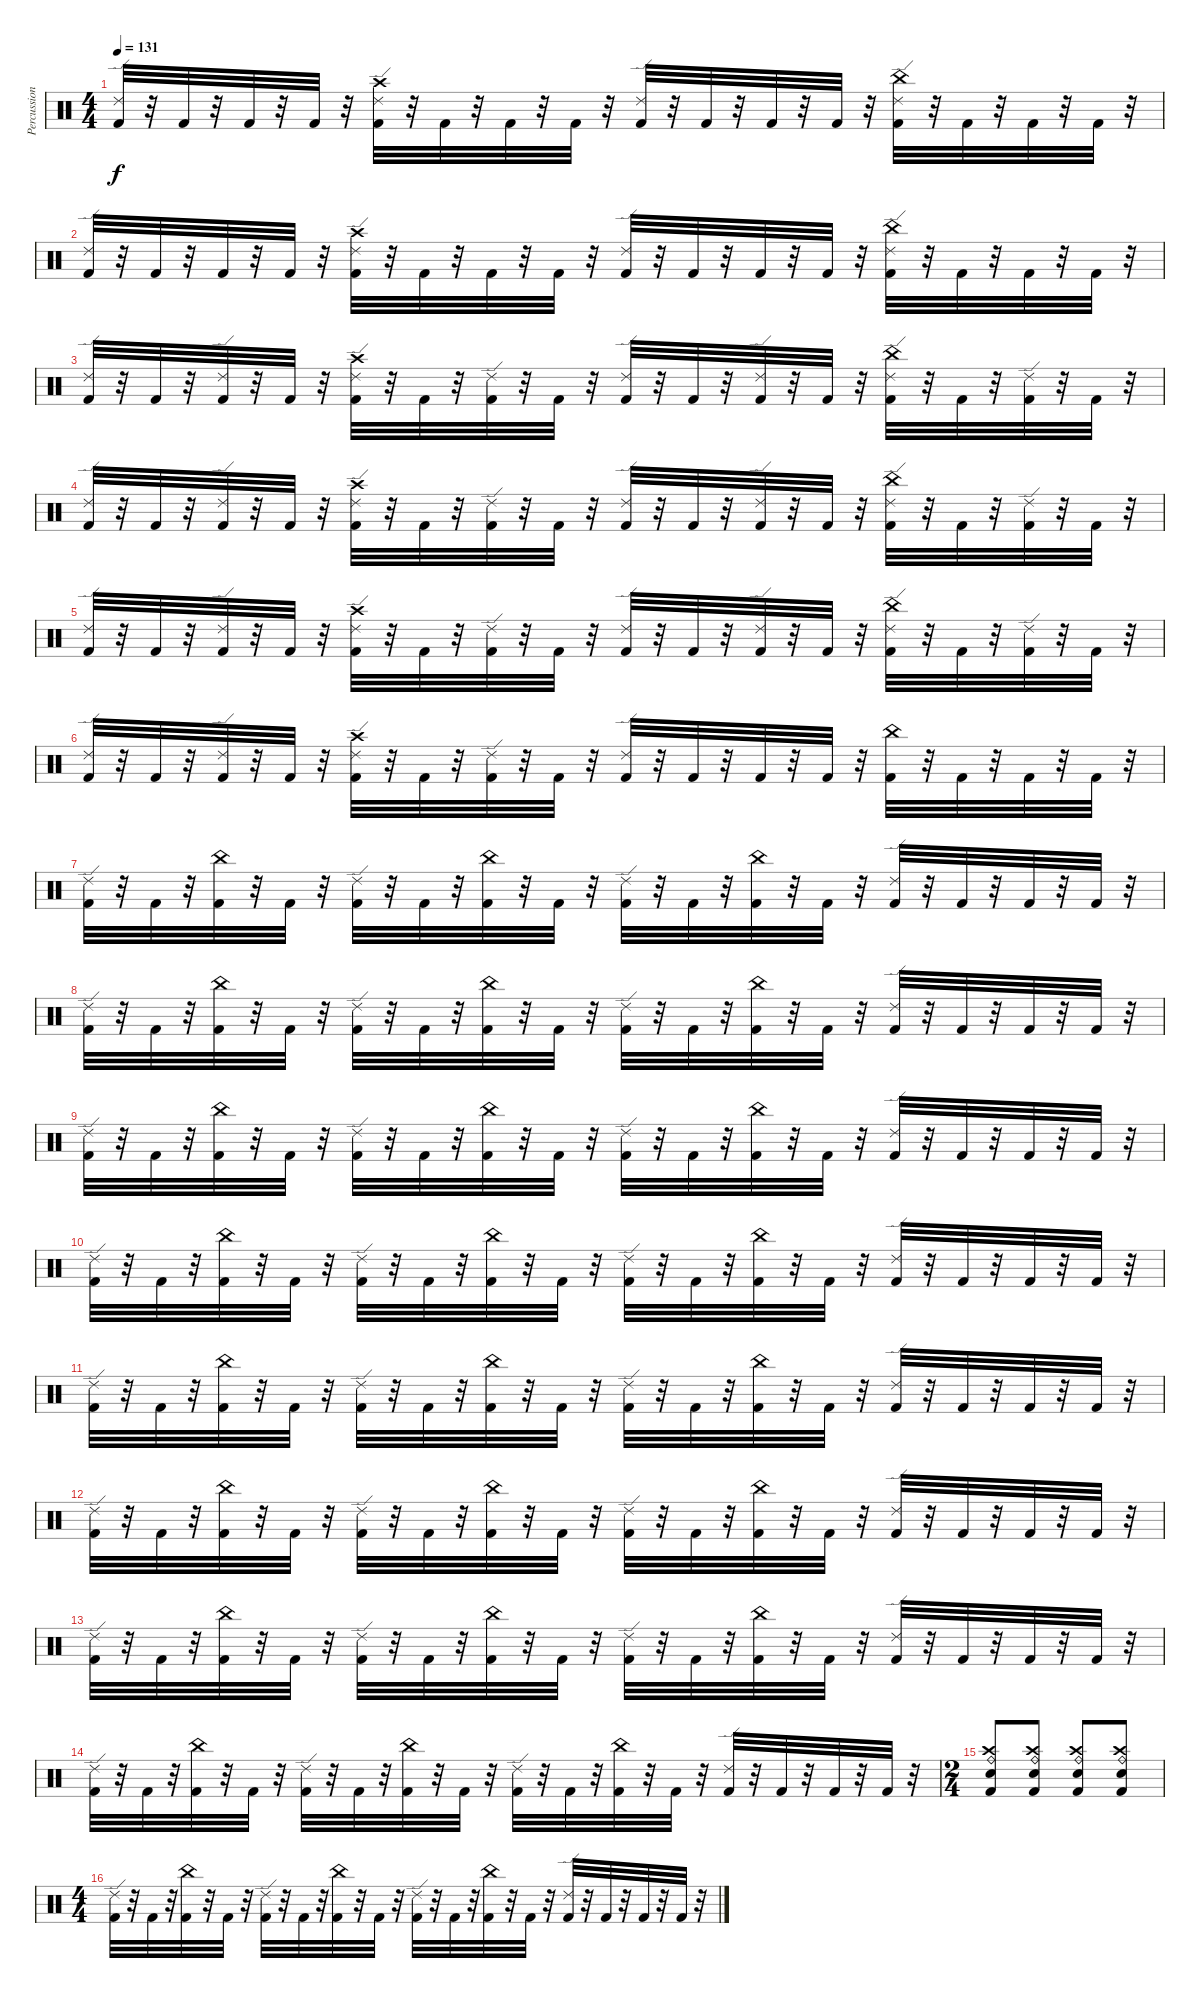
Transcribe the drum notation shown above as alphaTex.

\track ("Percussion" "Percussion") {instrument percussion}
\staff {score}
\articulation defaults
\ts (4 4)
\tempo 131
\clef neutral
\ks c
("Ride (edge) 2" "Kick (hit) 2").32{dy f} r.32 "Kick (hit) 2".32 r.32 "Kick (hit) 2".32 r.32 "Kick (hit) 2".32 r.32 ("Crash high (hit)" "Ride (edge) 2" "Kick (hit) 2").32 r.32 "Kick (hit) 2".32 r.32 "Kick (hit) 2".32 r.32 "Kick (hit) 2".32 r.32 ("Ride (edge) 2" "Kick (hit) 2").32 r.32 "Kick (hit) 2".32 r.32 "Kick (hit) 2".32 r.32 "Kick (hit) 2".32 r.32 ("China (hit)" "Ride (edge) 2" "Kick (hit) 2").32 r.32 "Kick (hit) 2".32 r.32 "Kick (hit) 2".32 r.32 "Kick (hit) 2".32 r.32 |
("Ride (edge) 2" "Kick (hit) 2").32 r.32 "Kick (hit) 2".32 r.32 "Kick (hit) 2".32 r.32 "Kick (hit) 2".32 r.32 ("Crash high (hit)" "Ride (edge) 2" "Kick (hit) 2").32 r.32 "Kick (hit) 2".32 r.32 "Kick (hit) 2".32 r.32 "Kick (hit) 2".32 r.32 ("Ride (edge) 2" "Kick (hit) 2").32 r.32 "Kick (hit) 2".32 r.32 "Kick (hit) 2".32 r.32 "Kick (hit) 2".32 r.32 ("China (hit)" "Ride (edge) 2" "Kick (hit) 2").32 r.32 "Kick (hit) 2".32 r.32 "Kick (hit) 2".32 r.32 "Kick (hit) 2".32 r.32 |
("Ride (edge) 2" "Kick (hit) 2").32 r.32 "Kick (hit) 2".32 r.32 ("Ride (edge) 2" "Kick (hit) 2").32 r.32 "Kick (hit) 2".32 r.32 ("Crash high (hit)" "Ride (edge) 2" "Kick (hit) 2").32 r.32 "Kick (hit) 2".32 r.32 ("Ride (edge) 2" "Kick (hit) 2").32 r.32 "Kick (hit) 2".32 r.32 ("Ride (edge) 2" "Kick (hit) 2").32 r.32 "Kick (hit) 2".32 r.32 ("Ride (edge) 2" "Kick (hit) 2").32 r.32 "Kick (hit) 2".32 r.32 ("China (hit)" "Ride (edge) 2" "Kick (hit) 2").32 r.32 "Kick (hit) 2".32 r.32 ("Ride (edge) 2" "Kick (hit) 2").32 r.32 "Kick (hit) 2".32 r.32 |
("Ride (edge) 2" "Kick (hit) 2").32 r.32 "Kick (hit) 2".32 r.32 ("Ride (edge) 2" "Kick (hit) 2").32 r.32 "Kick (hit) 2".32 r.32 ("Crash high (hit)" "Ride (edge) 2" "Kick (hit) 2").32 r.32 "Kick (hit) 2".32 r.32 ("Ride (edge) 2" "Kick (hit) 2").32 r.32 "Kick (hit) 2".32 r.32 ("Ride (edge) 2" "Kick (hit) 2").32 r.32 "Kick (hit) 2".32 r.32 ("Ride (edge) 2" "Kick (hit) 2").32 r.32 "Kick (hit) 2".32 r.32 ("China (hit)" "Ride (edge) 2" "Kick (hit) 2").32 r.32 "Kick (hit) 2".32 r.32 ("Ride (edge) 2" "Kick (hit) 2").32 r.32 "Kick (hit) 2".32 r.32 |
("Ride (edge) 2" "Kick (hit) 2").32 r.32 "Kick (hit) 2".32 r.32 ("Ride (edge) 2" "Kick (hit) 2").32 r.32 "Kick (hit) 2".32 r.32 ("Crash high (hit)" "Ride (edge) 2" "Kick (hit) 2").32 r.32 "Kick (hit) 2".32 r.32 ("Ride (edge) 2" "Kick (hit) 2").32 r.32 "Kick (hit) 2".32 r.32 ("Ride (edge) 2" "Kick (hit) 2").32 r.32 "Kick (hit) 2".32 r.32 ("Ride (edge) 2" "Kick (hit) 2").32 r.32 "Kick (hit) 2".32 r.32 ("China (hit)" "Ride (edge) 2" "Kick (hit) 2").32 r.32 "Kick (hit) 2".32 r.32 ("Ride (edge) 2" "Kick (hit) 2").32 r.32 "Kick (hit) 2".32 r.32 |
("Ride (edge) 2" "Kick (hit) 2").32 r.32 "Kick (hit) 2".32 r.32 ("Ride (edge) 2" "Kick (hit) 2").32 r.32 "Kick (hit) 2".32 r.32 ("Crash high (hit)" "Ride (edge) 2" "Kick (hit) 2").32 r.32 "Kick (hit) 2".32 r.32 ("Ride (edge) 2" "Kick (hit) 2").32 r.32 "Kick (hit) 2".32 r.32 ("Ride (edge) 2" "Kick (hit) 2").32 r.32 "Kick (hit) 2".32 r.32 "Kick (hit) 2".32 r.32 "Kick (hit) 2".32 r.32 ("China (hit)" "Kick (hit) 2").32 r.32 "Kick (hit) 2".32 r.32 "Kick (hit) 2".32 r.32 "Kick (hit) 2".32 r.32 |
("Ride (edge) 2" "Kick (hit) 2").32 r.32 "Kick (hit) 2".32 r.32 ("China (hit)" "Kick (hit) 2").32 r.32 "Kick (hit) 2".32 r.32 ("Ride (edge) 2" "Kick (hit) 2").32 r.32 "Kick (hit) 2".32 r.32 ("China (hit)" "Kick (hit) 2").32 r.32 "Kick (hit) 2".32 r.32 ("Ride (edge) 2" "Kick (hit) 2").32 r.32 "Kick (hit) 2".32 r.32 ("China (hit)" "Kick (hit) 2").32 r.32 "Kick (hit) 2".32 r.32 ("Ride (edge) 2" "Kick (hit) 2").32 r.32 "Kick (hit) 2".32 r.32 "Kick (hit) 2".32 r.32 "Kick (hit) 2".32 r.32 |
("Ride (edge) 2" "Kick (hit) 2").32 r.32 "Kick (hit) 2".32 r.32 ("China (hit)" "Kick (hit) 2").32 r.32 "Kick (hit) 2".32 r.32 ("Ride (edge) 2" "Kick (hit) 2").32 r.32 "Kick (hit) 2".32 r.32 ("China (hit)" "Kick (hit) 2").32 r.32 "Kick (hit) 2".32 r.32 ("Ride (edge) 2" "Kick (hit) 2").32 r.32 "Kick (hit) 2".32 r.32 ("China (hit)" "Kick (hit) 2").32 r.32 "Kick (hit) 2".32 r.32 ("Ride (edge) 2" "Kick (hit) 2").32 r.32 "Kick (hit) 2".32 r.32 "Kick (hit) 2".32 r.32 "Kick (hit) 2".32 r.32 |
("Ride (edge) 2" "Kick (hit) 2").32 r.32 "Kick (hit) 2".32 r.32 ("China (hit)" "Kick (hit) 2").32 r.32 "Kick (hit) 2".32 r.32 ("Ride (edge) 2" "Kick (hit) 2").32 r.32 "Kick (hit) 2".32 r.32 ("China (hit)" "Kick (hit) 2").32 r.32 "Kick (hit) 2".32 r.32 ("Ride (edge) 2" "Kick (hit) 2").32 r.32 "Kick (hit) 2".32 r.32 ("China (hit)" "Kick (hit) 2").32 r.32 "Kick (hit) 2".32 r.32 ("Ride (edge) 2" "Kick (hit) 2").32 r.32 "Kick (hit) 2".32 r.32 "Kick (hit) 2".32 r.32 "Kick (hit) 2".32 r.32 |
("Ride (edge) 2" "Kick (hit) 2").32 r.32 "Kick (hit) 2".32 r.32 ("China (hit)" "Kick (hit) 2").32 r.32 "Kick (hit) 2".32 r.32 ("Ride (edge) 2" "Kick (hit) 2").32 r.32 "Kick (hit) 2".32 r.32 ("China (hit)" "Kick (hit) 2").32 r.32 "Kick (hit) 2".32 r.32 ("Ride (edge) 2" "Kick (hit) 2").32 r.32 "Kick (hit) 2".32 r.32 ("China (hit)" "Kick (hit) 2").32 r.32 "Kick (hit) 2".32 r.32 ("Ride (edge) 2" "Kick (hit) 2").32 r.32 "Kick (hit) 2".32 r.32 "Kick (hit) 2".32 r.32 "Kick (hit) 2".32 r.32 |
("Ride (edge) 2" "Kick (hit) 2").32 r.32 "Kick (hit) 2".32 r.32 ("China (hit)" "Kick (hit) 2").32 r.32 "Kick (hit) 2".32 r.32 ("Ride (edge) 2" "Kick (hit) 2").32 r.32 "Kick (hit) 2".32 r.32 ("China (hit)" "Kick (hit) 2").32 r.32 "Kick (hit) 2".32 r.32 ("Ride (edge) 2" "Kick (hit) 2").32 r.32 "Kick (hit) 2".32 r.32 ("China (hit)" "Kick (hit) 2").32 r.32 "Kick (hit) 2".32 r.32 ("Ride (edge) 2" "Kick (hit) 2").32 r.32 "Kick (hit) 2".32 r.32 "Kick (hit) 2".32 r.32 "Kick (hit) 2".32 r.32 |
("Ride (edge) 2" "Kick (hit) 2").32 r.32 "Kick (hit) 2".32 r.32 ("China (hit)" "Kick (hit) 2").32 r.32 "Kick (hit) 2".32 r.32 ("Ride (edge) 2" "Kick (hit) 2").32 r.32 "Kick (hit) 2".32 r.32 ("China (hit)" "Kick (hit) 2").32 r.32 "Kick (hit) 2".32 r.32 ("Ride (edge) 2" "Kick (hit) 2").32 r.32 "Kick (hit) 2".32 r.32 ("China (hit)" "Kick (hit) 2").32 r.32 "Kick (hit) 2".32 r.32 ("Ride (edge) 2" "Kick (hit) 2").32 r.32 "Kick (hit) 2".32 r.32 "Kick (hit) 2".32 r.32 "Kick (hit) 2".32 r.32 |
("Ride (edge) 2" "Kick (hit) 2").32 r.32 "Kick (hit) 2".32 r.32 ("China (hit)" "Kick (hit) 2").32 r.32 "Kick (hit) 2".32 r.32 ("Ride (edge) 2" "Kick (hit) 2").32 r.32 "Kick (hit) 2".32 r.32 ("China (hit)" "Kick (hit) 2").32 r.32 "Kick (hit) 2".32 r.32 ("Ride (edge) 2" "Kick (hit) 2").32 r.32 "Kick (hit) 2".32 r.32 ("China (hit)" "Kick (hit) 2").32 r.32 "Kick (hit) 2".32 r.32 ("Ride (edge) 2" "Kick (hit) 2").32 r.32 "Kick (hit) 2".32 r.32 "Kick (hit) 2".32 r.32 "Kick (hit) 2".32 r.32 |
("Ride (edge) 2" "Kick (hit) 2").32 r.32 "Kick (hit) 2".32 r.32 ("China (hit)" "Kick (hit) 2").32 r.32 "Kick (hit) 2".32 r.32 ("Ride (edge) 2" "Kick (hit) 2").32 r.32 "Kick (hit) 2".32 r.32 ("China (hit)" "Kick (hit) 2").32 r.32 "Kick (hit) 2".32 r.32 ("Ride (edge) 2" "Kick (hit) 2").32 r.32 "Kick (hit) 2".32 r.32 ("China (hit)" "Kick (hit) 2").32 r.32 "Kick (hit) 2".32 r.32 ("Ride (edge) 2" "Kick (hit) 2").32 r.32 "Kick (hit) 2".32 r.32 "Kick (hit) 2".32 r.32 "Kick (hit) 2".32 r.32 |
\ts (2 4)
("Crash high (hit)" "Ride (bell)" "Electric Snare (hit)" "Kick (hit) 2").8 ("Crash high (hit)" "Ride (bell)" "Electric Snare (hit)" "Kick (hit) 2").8 ("Crash high (hit)" "Ride (bell)" "Electric Snare (hit)" "Kick (hit) 2").8 ("Crash high (hit)" "Ride (bell)" "Electric Snare (hit)" "Kick (hit) 2").8 |
\ts (4 4)
("Ride (edge) 2" "Kick (hit) 2").32 r.32 "Kick (hit) 2".32 r.32 ("China (hit)" "Kick (hit) 2").32 r.32 "Kick (hit) 2".32 r.32 ("Ride (edge) 2" "Kick (hit) 2").32 r.32 "Kick (hit) 2".32 r.32 ("China (hit)" "Kick (hit) 2").32 r.32 "Kick (hit) 2".32 r.32 ("Ride (edge) 2" "Kick (hit) 2").32 r.32 "Kick (hit) 2".32 r.32 ("China (hit)" "Kick (hit) 2").32 r.32 "Kick (hit) 2".32 r.32 ("Ride (edge) 2" "Kick (hit) 2").32 r.32 "Kick (hit) 2".32 r.32 "Kick (hit) 2".32 r.32 "Kick (hit) 2".32 r.32
